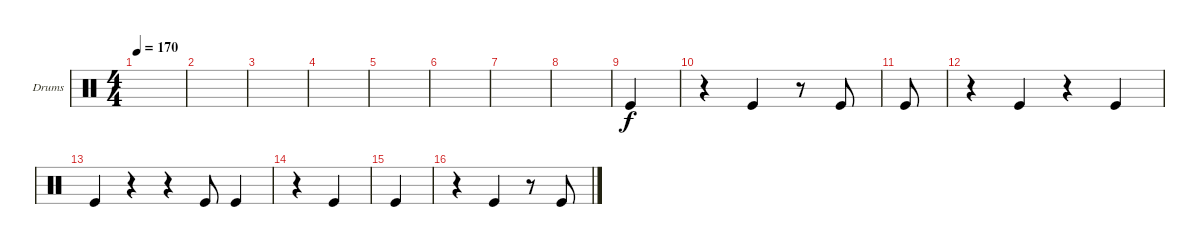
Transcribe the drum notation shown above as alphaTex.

\defaultSystemsLayout 4
\bracketExtendMode groupsimilarinstruments
\firstSystemTrackNameOrientation horizontal
\otherSystemsTrackNameOrientation horizontal
\track ("Drumkit" "Drums") {instrument percussion}
\staff {score}
\articulation defaults
\ts (4 4)
\tempo 170
\clef neutral
\scale
0.474178
\ks c
|
\scale
0.262911 |
\scale
0.262911 |
\scale
0.333333 |
\scale
0.333333 |
\scale
0.333333 |
\scale
0.333333 |
\scale
0.333333 |
\scale
0.333333 "Kick (hit)".4 |
\scale
0.333333 r.4 "Kick (hit)".4 r.8 "Kick (hit)".8 |
\scale
0.333333 "Kick (hit)".8 |
\scale
0.333333 r.4 "Kick (hit)".4 r.4 "Kick (hit)".4 |
\scale
0.333333 "Kick (hit)".4 r.4 r.4 "Kick (hit)".8 "Kick (hit)".4 |
\scale
0.333333 r.4 "Kick (hit)".4 |
\scale
0.333333 "Kick (hit)".4 |
r.4 "Kick (hit)".4 r.8 "Kick (hit)".8
